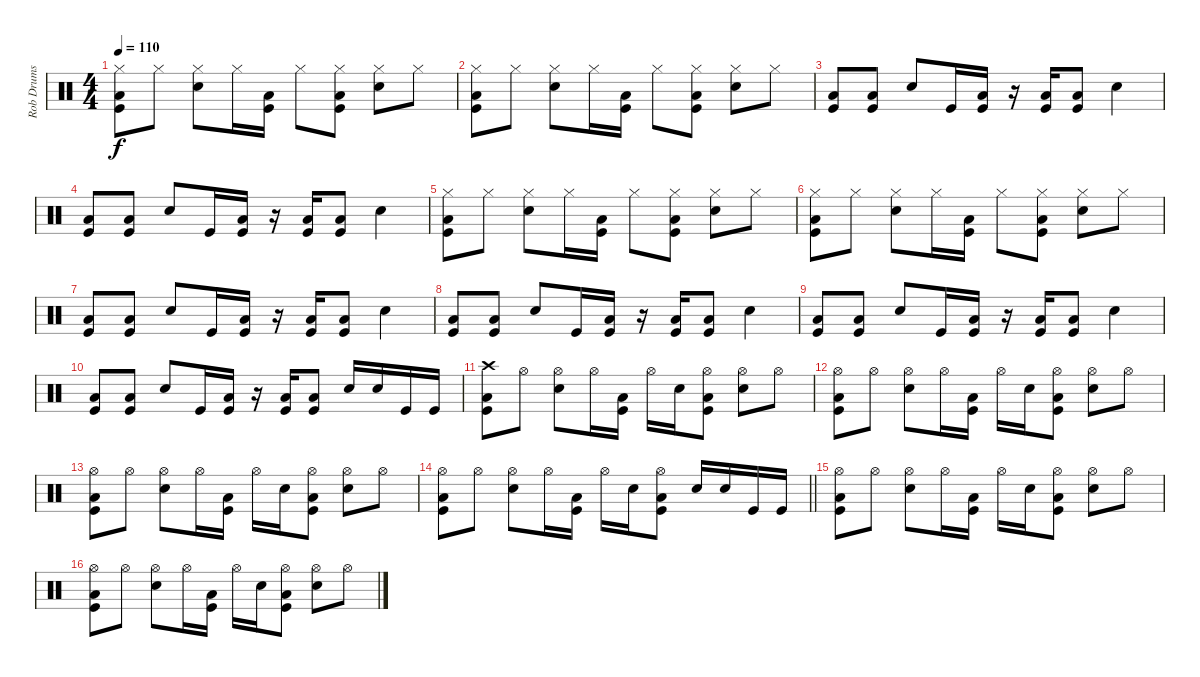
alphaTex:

\track ("Rob Drums" "Rob Drums") {instrument percussion}
\staff {score}
\articulation defaults
\ts (4 4)
\tempo 110
\clef neutral
\ks c
("Hi-Hat (closed)" "Kick (hit)" "Low Tom (hit)").8{dy f} "Hi-Hat (closed)".8 ("Hi-Hat (closed)" "Snare (hit) 2").8 "Hi-Hat (closed)".16 ("Kick (hit)" "Low Tom (hit)").16 "Hi-Hat (closed)".8 ("Hi-Hat (closed)" "Kick (hit)" "Low Tom (hit)").8 ("Hi-Hat (closed)" "Snare (hit) 2").8 "Hi-Hat (closed)".8 |
("Hi-Hat (closed)" "Kick (hit)" "Low Tom (hit)").8 "Hi-Hat (closed)".8 ("Hi-Hat (closed)" "Snare (hit) 2").8 "Hi-Hat (closed)".16 ("Kick (hit)" "Low Tom (hit)").16 "Hi-Hat (closed)".8 ("Hi-Hat (closed)" "Kick (hit)" "Low Tom (hit)").8 ("Hi-Hat (closed)" "Snare (hit) 2").8 "Hi-Hat (closed)".8 |
("Kick (hit)" "Low Tom (hit)").8 ("Kick (hit)" "Low Tom (hit)").8 "Snare (hit) 2".8 "Kick (hit)".16 ("Kick (hit)" "Low Tom (hit)").16 r.16 ("Kick (hit)" "Low Tom (hit)").16 ("Kick (hit)" "Low Tom (hit)").8 "Snare (hit) 2".4 |
("Kick (hit)" "Low Tom (hit)").8 ("Kick (hit)" "Low Tom (hit)").8 "Snare (hit) 2".8 "Kick (hit)".16 ("Kick (hit)" "Low Tom (hit)").16 r.16 ("Kick (hit)" "Low Tom (hit)").16 ("Kick (hit)" "Low Tom (hit)").8 "Snare (hit) 2".4 |
("Hi-Hat (closed)" "Kick (hit)" "Low Tom (hit)").8 "Hi-Hat (closed)".8 ("Hi-Hat (closed)" "Snare (hit) 2").8 "Hi-Hat (closed)".16 ("Kick (hit)" "Low Tom (hit)").16 "Hi-Hat (closed)".8 ("Hi-Hat (closed)" "Kick (hit)" "Low Tom (hit)").8 ("Hi-Hat (closed)" "Snare (hit) 2").8 "Hi-Hat (closed)".8 |
("Hi-Hat (closed)" "Kick (hit)" "Low Tom (hit)").8 "Hi-Hat (closed)".8 ("Hi-Hat (closed)" "Snare (hit) 2").8 "Hi-Hat (closed)".16 ("Kick (hit)" "Low Tom (hit)").16 "Hi-Hat (closed)".8 ("Hi-Hat (closed)" "Kick (hit)" "Low Tom (hit)").8 ("Hi-Hat (closed)" "Snare (hit) 2").8 "Hi-Hat (closed)".8 |
("Kick (hit)" "Low Tom (hit)").8 ("Kick (hit)" "Low Tom (hit)").8 "Snare (hit) 2".8 "Kick (hit)".16 ("Kick (hit)" "Low Tom (hit)").16 r.16 ("Kick (hit)" "Low Tom (hit)").16 ("Kick (hit)" "Low Tom (hit)").8 "Snare (hit) 2".4 |
("Kick (hit)" "Low Tom (hit)").8 ("Kick (hit)" "Low Tom (hit)").8 "Snare (hit) 2".8 "Kick (hit)".16 ("Kick (hit)" "Low Tom (hit)").16 r.16 ("Kick (hit)" "Low Tom (hit)").16 ("Kick (hit)" "Low Tom (hit)").8 "Snare (hit) 2".4 |
("Kick (hit)" "Low Tom (hit)").8 ("Kick (hit)" "Low Tom (hit)").8 "Snare (hit) 2".8 "Kick (hit)".16 ("Kick (hit)" "Low Tom (hit)").16 r.16 ("Kick (hit)" "Low Tom (hit)").16 ("Kick (hit)" "Low Tom (hit)").8 "Snare (hit) 2".4 |
("Kick (hit)" "Low Tom (hit)").8 ("Kick (hit)" "Low Tom (hit)").8 "Snare (hit) 2".8 "Kick (hit)".16 ("Kick (hit)" "Low Tom (hit)").16 r.16 ("Kick (hit)" "Low Tom (hit)").16 ("Kick (hit)" "Low Tom (hit)").8 "Snare (hit) 2".16 "Snare (hit) 2".16 "Kick (hit)".16 "Kick (hit)".16 |
("Crash high (hit)" "Kick (hit)" "Low Tom (hit)").8 "Hi-Hat (open)".8 ("Hi-Hat (open)" "Snare (hit) 2").8 "Hi-Hat (open)".16 ("Kick (hit)" "Low Tom (hit)").16 "Hi-Hat (open)".16 "Snare (hit) 2".16 ("Hi-Hat (open)" "Kick (hit)" "Low Tom (hit)").8 ("Hi-Hat (open)" "Snare (hit) 2").8 "Hi-Hat (open)".8 |
("Hi-Hat (open)" "Kick (hit)" "Low Tom (hit)").8 "Hi-Hat (open)".8 ("Hi-Hat (open)" "Snare (hit) 2").8 "Hi-Hat (open)".16 ("Kick (hit)" "Low Tom (hit)").16 "Hi-Hat (open)".16 "Snare (hit) 2".16 ("Hi-Hat (open)" "Kick (hit)" "Low Tom (hit)").8 ("Hi-Hat (open)" "Snare (hit) 2").8 "Hi-Hat (open)".8 |
("Hi-Hat (open)" "Kick (hit)" "Low Tom (hit)").8 "Hi-Hat (open)".8 ("Hi-Hat (open)" "Snare (hit) 2").8 "Hi-Hat (open)".16 ("Kick (hit)" "Low Tom (hit)").16 "Hi-Hat (open)".16 "Snare (hit) 2".16 ("Hi-Hat (open)" "Kick (hit)" "Low Tom (hit)").8 ("Hi-Hat (open)" "Snare (hit) 2").8 "Hi-Hat (open)".8 |
\barLineRight lightlight
("Hi-Hat (open)" "Kick (hit)" "Low Tom (hit)").8 "Hi-Hat (open)".8 ("Hi-Hat (open)" "Snare (hit) 2").8 "Hi-Hat (open)".16 ("Kick (hit)" "Low Tom (hit)").16 "Hi-Hat (open)".16 "Snare (hit) 2".16 ("Hi-Hat (open)" "Kick (hit)" "Low Tom (hit)").8 "Snare (hit) 2".16 "Snare (hit) 2".16 "Kick (hit)".16 "Kick (hit)".16 |
("Hi-Hat (open)" "Kick (hit)" "Low Tom (hit)").8 "Hi-Hat (open)".8 ("Hi-Hat (open)" "Snare (hit) 2").8 "Hi-Hat (open)".16 ("Kick (hit)" "Low Tom (hit)").16 "Hi-Hat (open)".16 "Snare (hit) 2".16 ("Hi-Hat (open)" "Kick (hit)" "Low Tom (hit)").8 ("Hi-Hat (open)" "Snare (hit) 2").8 "Hi-Hat (open)".8 |
("Hi-Hat (open)" "Kick (hit)" "Low Tom (hit)").8 "Hi-Hat (open)".8 ("Hi-Hat (open)" "Snare (hit) 2").8 "Hi-Hat (open)".16 ("Kick (hit)" "Low Tom (hit)").16 "Hi-Hat (open)".16 "Snare (hit) 2".16 ("Hi-Hat (open)" "Kick (hit)" "Low Tom (hit)").8 ("Hi-Hat (open)" "Snare (hit) 2").8 "Hi-Hat (open)".8
